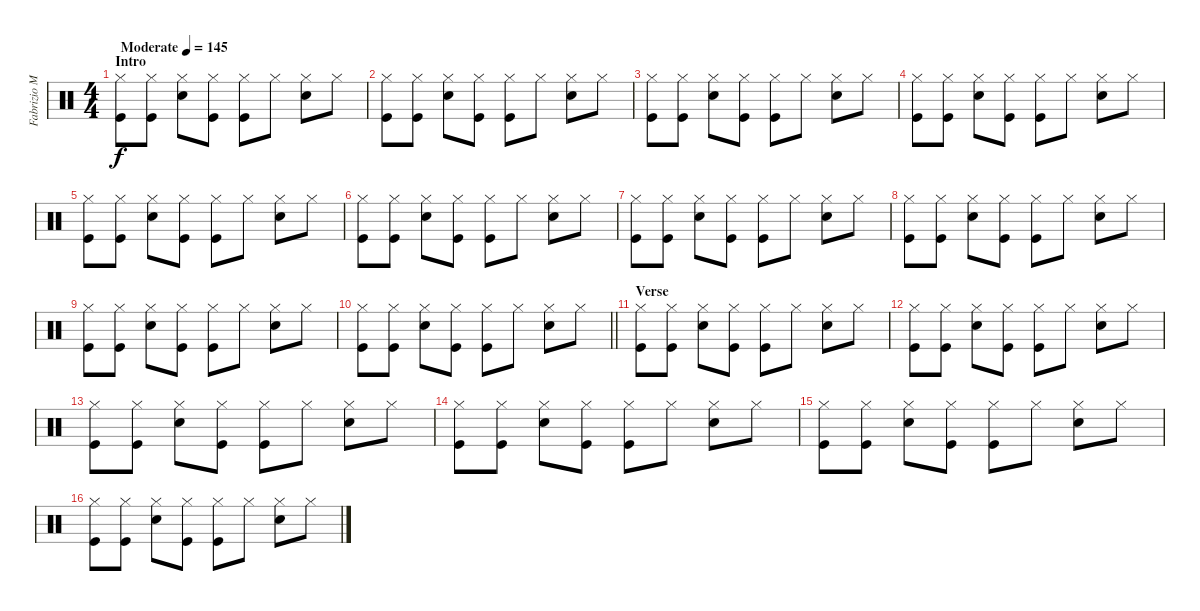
\track ("Fabrizio Moretti" "Fabrizio M") {instrument percussion}
\staff {score}
\articulation defaults
\ts (4 4)
\section ("" "Intro")
\tempo (145 "Moderate")
\clef neutral
\ks c
("Hi-Hat (closed)" "Kick (hit)").8{dy f} ("Hi-Hat (closed)" "Kick (hit)").8 ("Hi-Hat (closed)" "Snare (hit) 2").8 ("Hi-Hat (closed)" "Kick (hit)").8 ("Hi-Hat (closed)" "Kick (hit)").8 "Hi-Hat (closed)".8 ("Hi-Hat (closed)" "Snare (hit) 2").8 "Hi-Hat (closed)".8 |
("Hi-Hat (closed)" "Kick (hit)").8 ("Hi-Hat (closed)" "Kick (hit)").8 ("Hi-Hat (closed)" "Snare (hit) 2").8 ("Hi-Hat (closed)" "Kick (hit)").8 ("Hi-Hat (closed)" "Kick (hit)").8 "Hi-Hat (closed)".8 ("Hi-Hat (closed)" "Snare (hit) 2").8 "Hi-Hat (closed)".8 |
("Hi-Hat (closed)" "Kick (hit)").8 ("Hi-Hat (closed)" "Kick (hit)").8 ("Hi-Hat (closed)" "Snare (hit) 2").8 ("Hi-Hat (closed)" "Kick (hit)").8 ("Hi-Hat (closed)" "Kick (hit)").8 "Hi-Hat (closed)".8 ("Hi-Hat (closed)" "Snare (hit) 2").8 "Hi-Hat (closed)".8 |
("Hi-Hat (closed)" "Kick (hit)").8 ("Hi-Hat (closed)" "Kick (hit)").8 ("Hi-Hat (closed)" "Snare (hit) 2").8 ("Hi-Hat (closed)" "Kick (hit)").8 ("Hi-Hat (closed)" "Kick (hit)").8 "Hi-Hat (closed)".8 ("Hi-Hat (closed)" "Snare (hit) 2").8 "Hi-Hat (closed)".8 |
("Hi-Hat (closed)" "Kick (hit)").8 ("Hi-Hat (closed)" "Kick (hit)").8 ("Hi-Hat (closed)" "Snare (hit) 2").8 ("Hi-Hat (closed)" "Kick (hit)").8 ("Hi-Hat (closed)" "Kick (hit)").8 "Hi-Hat (closed)".8 ("Hi-Hat (closed)" "Snare (hit) 2").8 "Hi-Hat (closed)".8 |
("Hi-Hat (closed)" "Kick (hit)").8 ("Hi-Hat (closed)" "Kick (hit)").8 ("Hi-Hat (closed)" "Snare (hit) 2").8 ("Hi-Hat (closed)" "Kick (hit)").8 ("Hi-Hat (closed)" "Kick (hit)").8 "Hi-Hat (closed)".8 ("Hi-Hat (closed)" "Snare (hit) 2").8 "Hi-Hat (closed)".8 |
("Hi-Hat (closed)" "Kick (hit)").8 ("Hi-Hat (closed)" "Kick (hit)").8 ("Hi-Hat (closed)" "Snare (hit) 2").8 ("Hi-Hat (closed)" "Kick (hit)").8 ("Hi-Hat (closed)" "Kick (hit)").8 "Hi-Hat (closed)".8 ("Hi-Hat (closed)" "Snare (hit) 2").8 "Hi-Hat (closed)".8 |
("Hi-Hat (closed)" "Kick (hit)").8 ("Hi-Hat (closed)" "Kick (hit)").8 ("Hi-Hat (closed)" "Snare (hit) 2").8 ("Hi-Hat (closed)" "Kick (hit)").8 ("Hi-Hat (closed)" "Kick (hit)").8 "Hi-Hat (closed)".8 ("Hi-Hat (closed)" "Snare (hit) 2").8 "Hi-Hat (closed)".8 |
("Hi-Hat (closed)" "Kick (hit)").8 ("Hi-Hat (closed)" "Kick (hit)").8 ("Hi-Hat (closed)" "Snare (hit) 2").8 ("Hi-Hat (closed)" "Kick (hit)").8 ("Hi-Hat (closed)" "Kick (hit)").8 "Hi-Hat (closed)".8 ("Hi-Hat (closed)" "Snare (hit) 2").8 "Hi-Hat (closed)".8 |
\barLineRight lightlight
("Hi-Hat (closed)" "Kick (hit)").8 ("Hi-Hat (closed)" "Kick (hit)").8 ("Hi-Hat (closed)" "Snare (hit) 2").8 ("Hi-Hat (closed)" "Kick (hit)").8 ("Hi-Hat (closed)" "Kick (hit)").8 "Hi-Hat (closed)".8 ("Hi-Hat (closed)" "Snare (hit) 2").8 "Hi-Hat (closed)".8 |
\section ("" "Verse")
("Hi-Hat (closed)" "Kick (hit)").8 ("Hi-Hat (closed)" "Kick (hit)").8 ("Hi-Hat (closed)" "Snare (hit) 2").8 ("Hi-Hat (closed)" "Kick (hit)").8 ("Hi-Hat (closed)" "Kick (hit)").8 "Hi-Hat (closed)".8 ("Hi-Hat (closed)" "Snare (hit) 2").8 "Hi-Hat (closed)".8 |
("Hi-Hat (closed)" "Kick (hit)").8 ("Hi-Hat (closed)" "Kick (hit)").8 ("Hi-Hat (closed)" "Snare (hit) 2").8 ("Hi-Hat (closed)" "Kick (hit)").8 ("Hi-Hat (closed)" "Kick (hit)").8 "Hi-Hat (closed)".8 ("Hi-Hat (closed)" "Snare (hit) 2").8 "Hi-Hat (closed)".8 |
("Hi-Hat (closed)" "Kick (hit)").8 ("Hi-Hat (closed)" "Kick (hit)").8 ("Hi-Hat (closed)" "Snare (hit) 2").8 ("Hi-Hat (closed)" "Kick (hit)").8 ("Hi-Hat (closed)" "Kick (hit)").8 "Hi-Hat (closed)".8 ("Hi-Hat (closed)" "Snare (hit) 2").8 "Hi-Hat (closed)".8 |
("Hi-Hat (closed)" "Kick (hit)").8 ("Hi-Hat (closed)" "Kick (hit)").8 ("Hi-Hat (closed)" "Snare (hit) 2").8 ("Hi-Hat (closed)" "Kick (hit)").8 ("Hi-Hat (closed)" "Kick (hit)").8 "Hi-Hat (closed)".8 ("Hi-Hat (closed)" "Snare (hit) 2").8 "Hi-Hat (closed)".8 |
("Hi-Hat (closed)" "Kick (hit)").8 ("Hi-Hat (closed)" "Kick (hit)").8 ("Hi-Hat (closed)" "Snare (hit) 2").8 ("Hi-Hat (closed)" "Kick (hit)").8 ("Hi-Hat (closed)" "Kick (hit)").8 "Hi-Hat (closed)".8 ("Hi-Hat (closed)" "Snare (hit) 2").8 "Hi-Hat (closed)".8 |
("Hi-Hat (closed)" "Kick (hit)").8 ("Hi-Hat (closed)" "Kick (hit)").8 ("Hi-Hat (closed)" "Snare (hit) 2").8 ("Hi-Hat (closed)" "Kick (hit)").8 ("Hi-Hat (closed)" "Kick (hit)").8 "Hi-Hat (closed)".8 ("Hi-Hat (closed)" "Snare (hit) 2").8 "Hi-Hat (closed)".8
